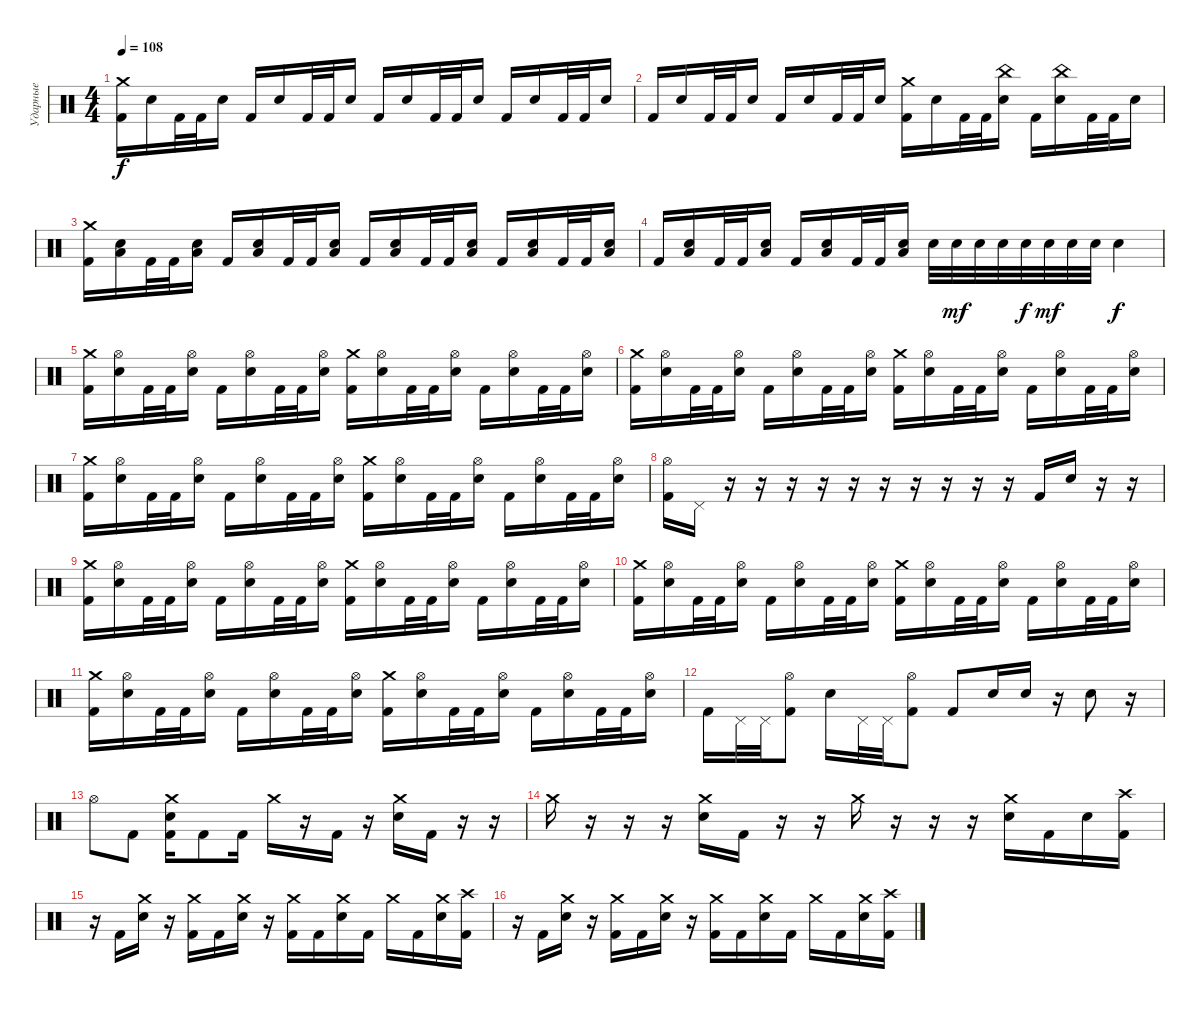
\track ("Ударные" "Ударные") {instrument percussion}
\staff {score}
\articulation defaults
\ts (4 4)
\tempo 108
\clef neutral
\ks c
("Crash medium (hit)" "Kick (hit) 2").16{dy f} "Electric Snare (hit)".16 "Kick (hit) 2".32 "Kick (hit) 2".32 "Electric Snare (hit)".16 "Kick (hit) 2".16 "Electric Snare (hit)".16 "Kick (hit) 2".32 "Kick (hit) 2".32 "Electric Snare (hit)".16 "Kick (hit) 2".16 "Electric Snare (hit)".16 "Kick (hit) 2".32 "Kick (hit) 2".32 "Electric Snare (hit)".16 "Kick (hit) 2".16 "Electric Snare (hit)".16 "Kick (hit) 2".32 "Kick (hit) 2".32 "Electric Snare (hit)".16 |
"Kick (hit) 2".16 "Electric Snare (hit)".16 "Kick (hit) 2".32 "Kick (hit) 2".32 "Electric Snare (hit)".16 "Kick (hit) 2".16 "Electric Snare (hit)".16 "Kick (hit) 2".32 "Kick (hit) 2".32 "Electric Snare (hit)".16 ("Crash medium (hit)" "Kick (hit) 2").16 "Electric Snare (hit)".16 "Kick (hit) 2".32 "Kick (hit) 2".32 ("China (hit)" "Electric Snare (hit)").16 "Kick (hit) 2".16 ("China (hit)" "Electric Snare (hit)").16 "Kick (hit) 2".32 "Kick (hit) 2".32 "Electric Snare (hit)".16 |
("Crash medium (hit)" "Kick (hit) 2").16 ("Low Floor Tom (hit)" "Electric Snare (hit)").16 "Kick (hit) 2".32 "Kick (hit) 2".32 ("Low Floor Tom (hit)" "Electric Snare (hit)").16 "Kick (hit) 2".16 ("Low Floor Tom (hit)" "Electric Snare (hit)").16 "Kick (hit) 2".32 "Kick (hit) 2".32 ("Low Floor Tom (hit)" "Electric Snare (hit)").16 "Kick (hit) 2".16 ("Low Floor Tom (hit)" "Electric Snare (hit)").16 "Kick (hit) 2".32 "Kick (hit) 2".32 ("Low Floor Tom (hit)" "Electric Snare (hit)").16 "Kick (hit) 2".16 ("Low Floor Tom (hit)" "Electric Snare (hit)").16 "Kick (hit) 2".32 "Kick (hit) 2".32 ("Low Floor Tom (hit)" "Electric Snare (hit)").16 |
"Kick (hit) 2".16 ("Low Floor Tom (hit)" "Electric Snare (hit)").16 "Kick (hit) 2".32 "Kick (hit) 2".32 ("Low Floor Tom (hit)" "Electric Snare (hit)").16 "Kick (hit) 2".16 ("Low Floor Tom (hit)" "Electric Snare (hit)").16 "Kick (hit) 2".32 "Kick (hit) 2".32 ("Low Floor Tom (hit)" "Electric Snare (hit)").16 "Electric Snare (hit)".32 "Electric Snare (hit)".32{dy mf} "Electric Snare (hit)".32 "Electric Snare (hit)".32 "Electric Snare (hit)".32{dy f} "Electric Snare (hit)".32{dy mf} "Electric Snare (hit)".32 "Electric Snare (hit)".32 "Electric Snare (hit)".4{dy f} |
("Crash medium (hit)" "Kick (hit) 2").16 ("Hi-Hat (open)" "Electric Snare (hit)").16 "Kick (hit) 2".32 "Kick (hit) 2".32 ("Hi-Hat (open)" "Electric Snare (hit)").16 "Kick (hit) 2".16 ("Hi-Hat (open)" "Electric Snare (hit)").16 "Kick (hit) 2".32 "Kick (hit) 2".32 ("Hi-Hat (open)" "Electric Snare (hit)").16 ("Crash medium (hit)" "Kick (hit) 2").16 ("Hi-Hat (open)" "Electric Snare (hit)").16 "Kick (hit) 2".32 "Kick (hit) 2".32 ("Hi-Hat (open)" "Electric Snare (hit)").16 "Kick (hit) 2".16 ("Hi-Hat (open)" "Electric Snare (hit)").16 "Kick (hit) 2".32 "Kick (hit) 2".32 ("Hi-Hat (open)" "Electric Snare (hit)").16 |
("Crash medium (hit)" "Kick (hit) 2").16 ("Hi-Hat (open)" "Electric Snare (hit)").16 "Kick (hit) 2".32 "Kick (hit) 2".32 ("Hi-Hat (open)" "Electric Snare (hit)").16 "Kick (hit) 2".16 ("Hi-Hat (open)" "Electric Snare (hit)").16 "Kick (hit) 2".32 "Kick (hit) 2".32 ("Hi-Hat (open)" "Electric Snare (hit)").16 ("Crash medium (hit)" "Kick (hit) 2").16 ("Hi-Hat (open)" "Electric Snare (hit)").16 "Kick (hit) 2".32 "Kick (hit) 2".32 ("Hi-Hat (open)" "Electric Snare (hit)").16 "Kick (hit) 2".16 ("Hi-Hat (open)" "Electric Snare (hit)").16 "Kick (hit) 2".32 "Kick (hit) 2".32 ("Hi-Hat (open)" "Electric Snare (hit)").16 |
("Crash medium (hit)" "Kick (hit) 2").16 ("Hi-Hat (open)" "Electric Snare (hit)").16 "Kick (hit) 2".32 "Kick (hit) 2".32 ("Hi-Hat (open)" "Electric Snare (hit)").16 "Kick (hit) 2".16 ("Hi-Hat (open)" "Electric Snare (hit)").16 "Kick (hit) 2".32 "Kick (hit) 2".32 ("Hi-Hat (open)" "Electric Snare (hit)").16 ("Crash medium (hit)" "Kick (hit) 2").16 ("Hi-Hat (open)" "Electric Snare (hit)").16 "Kick (hit) 2".32 "Kick (hit) 2".32 ("Hi-Hat (open)" "Electric Snare (hit)").16 "Kick (hit) 2".16 ("Hi-Hat (open)" "Electric Snare (hit)").16 "Kick (hit) 2".32 "Kick (hit) 2".32 ("Hi-Hat (open)" "Electric Snare (hit)").16 |
("Hi-Hat (open)" "Kick (hit) 2").16 "Pedal Hi-Hat (hit)".16 r.16 r.16 r.16 r.16 r.16 r.16 r.16 r.16 r.16 r.16 "Kick (hit) 2".16 "Electric Snare (hit)".16 r.16 r.16 |
("Crash medium (hit)" "Kick (hit) 2").16 ("Hi-Hat (open)" "Electric Snare (hit)").16 "Kick (hit) 2".32 "Kick (hit) 2".32 ("Hi-Hat (open)" "Electric Snare (hit)").16 "Kick (hit) 2".16 ("Hi-Hat (open)" "Electric Snare (hit)").16 "Kick (hit) 2".32 "Kick (hit) 2".32 ("Hi-Hat (open)" "Electric Snare (hit)").16 ("Crash medium (hit)" "Kick (hit) 2").16 ("Hi-Hat (open)" "Electric Snare (hit)").16 "Kick (hit) 2".32 "Kick (hit) 2".32 ("Hi-Hat (open)" "Electric Snare (hit)").16 "Kick (hit) 2".16 ("Hi-Hat (open)" "Electric Snare (hit)").16 "Kick (hit) 2".32 "Kick (hit) 2".32 ("Hi-Hat (open)" "Electric Snare (hit)").16 |
("Crash medium (hit)" "Kick (hit) 2").16 ("Hi-Hat (open)" "Electric Snare (hit)").16 "Kick (hit) 2".32 "Kick (hit) 2".32 ("Hi-Hat (open)" "Electric Snare (hit)").16 "Kick (hit) 2".16 ("Hi-Hat (open)" "Electric Snare (hit)").16 "Kick (hit) 2".32 "Kick (hit) 2".32 ("Hi-Hat (open)" "Electric Snare (hit)").16 ("Crash medium (hit)" "Kick (hit) 2").16 ("Hi-Hat (open)" "Electric Snare (hit)").16 "Kick (hit) 2".32 "Kick (hit) 2".32 ("Hi-Hat (open)" "Electric Snare (hit)").16 "Kick (hit) 2".16 ("Hi-Hat (open)" "Electric Snare (hit)").16 "Kick (hit) 2".32 "Kick (hit) 2".32 ("Hi-Hat (open)" "Electric Snare (hit)").16 |
("Crash medium (hit)" "Kick (hit) 2").16 ("Hi-Hat (open)" "Electric Snare (hit)").16 "Kick (hit) 2".32 "Kick (hit) 2".32 ("Hi-Hat (open)" "Electric Snare (hit)").16 "Kick (hit) 2".16 ("Hi-Hat (open)" "Electric Snare (hit)").16 "Kick (hit) 2".32 "Kick (hit) 2".32 ("Hi-Hat (open)" "Electric Snare (hit)").16 ("Crash medium (hit)" "Kick (hit) 2").16 ("Hi-Hat (open)" "Electric Snare (hit)").16 "Kick (hit) 2".32 "Kick (hit) 2".32 ("Hi-Hat (open)" "Electric Snare (hit)").16 "Kick (hit) 2".16 ("Hi-Hat (open)" "Electric Snare (hit)").16 "Kick (hit) 2".32 "Kick (hit) 2".32 ("Hi-Hat (open)" "Electric Snare (hit)").16 |
"Kick (hit) 2".16 "Pedal Hi-Hat (hit)".32 "Pedal Hi-Hat (hit)".32 ("Hi-Hat (open)" "Kick (hit) 2").8 "Electric Snare (hit)".16 "Pedal Hi-Hat (hit)".32 "Pedal Hi-Hat (hit)".32 ("Hi-Hat (open)" "Kick (hit) 2").8 "Kick (hit) 2".8 "Electric Snare (hit)".16 "Electric Snare (hit)".16 r.16 "Electric Snare (hit)".8 r.16 |
"Hi-Hat (open)".8 "Kick (hit) 2".8 ("Crash medium (hit)" "Electric Snare (hit)" "Kick (hit) 2").16 "Kick (hit) 2".8 "Kick (hit) 2".16 "Crash medium (hit)".16 r.16 "Kick (hit) 2".16 r.16 ("Crash medium (hit)" "Electric Snare (hit)").16 "Kick (hit) 2".16 r.16 r.16 |
"Crash medium (hit)".16 r.16 r.16 r.16 ("Crash medium (hit)" "Electric Snare (hit)").16 "Kick (hit) 2".16 r.16 r.16 "Crash medium (hit)".16 r.16 r.16 r.16 ("Crash medium (hit)" "Electric Snare (hit)").16 "Kick (hit) 2".16 "Electric Snare (hit)".16 ("Crash high (hit)" "Kick (hit) 2").16 |
r.16 "Kick (hit) 2".16 ("Crash medium (hit)" "Electric Snare (hit)").16 r.16 ("Crash medium (hit)" "Kick (hit) 2").16 "Kick (hit) 2".16 ("Crash medium (hit)" "Electric Snare (hit)").16 r.16 ("Crash medium (hit)" "Kick (hit) 2").16 "Kick (hit) 2".16 ("Crash medium (hit)" "Electric Snare (hit)").16 "Kick (hit) 2".16 "Crash medium (hit)".16 "Kick (hit) 2".16 ("Crash medium (hit)" "Electric Snare (hit)").16 ("Crash high (hit)" "Kick (hit) 2").16 |
r.16 "Kick (hit) 2".16 ("Crash medium (hit)" "Electric Snare (hit)").16 r.16 ("Crash medium (hit)" "Kick (hit) 2").16 "Kick (hit) 2".16 ("Crash medium (hit)" "Electric Snare (hit)").16 r.16 ("Crash medium (hit)" "Kick (hit) 2").16 "Kick (hit) 2".16 ("Crash medium (hit)" "Electric Snare (hit)").16 "Kick (hit) 2".16 "Crash medium (hit)".16 "Kick (hit) 2".16 ("Crash medium (hit)" "Electric Snare (hit)").16 ("Crash high (hit)" "Kick (hit) 2").16
